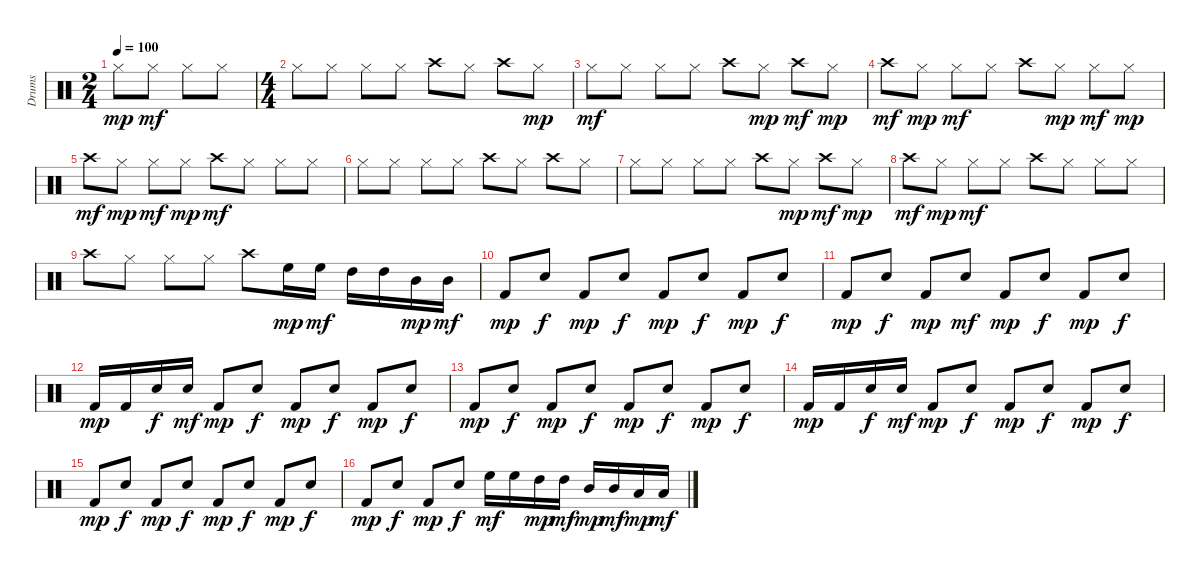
\track ("Drums" "Drums") {instrument percussion}
\staff {score}
\articulation defaults
\ts (2 4)
\tempo 100
\clef neutral
\ks c "Hi-Hat (closed)".8{dy mp} "Hi-Hat (closed)".8{dy mf} "Hi-Hat (closed)".8 "Hi-Hat (closed)".8
|
\ts (4 4)
"Hi-Hat (closed)".8 "Hi-Hat (closed)".8 "Hi-Hat (closed)".8 "Hi-Hat (closed)".8 "Crash high (hit)".8 "Hi-Hat (closed)".8 "Crash high (hit)".8 "Hi-Hat (closed)".8{dy mp} |
"Hi-Hat (closed)".8{dy mf} "Hi-Hat (closed)".8 "Hi-Hat (closed)".8 "Hi-Hat (closed)".8 "Crash high (hit)".8 "Hi-Hat (closed)".8{dy mp} "Crash high (hit)".8{dy mf} "Hi-Hat (closed)".8{dy mp} |
"Crash high (hit)".8{dy mf} "Hi-Hat (closed)".8{dy mp} "Hi-Hat (closed)".8{dy mf} "Hi-Hat (closed)".8 "Crash high (hit)".8 "Hi-Hat (closed)".8{dy mp} "Hi-Hat (closed)".8{dy mf} "Hi-Hat (closed)".8{dy mp} |
"Crash high (hit)".8{dy mf} "Hi-Hat (closed)".8{dy mp} "Hi-Hat (closed)".8{dy mf} "Hi-Hat (closed)".8{dy mp} "Crash high (hit)".8{dy mf} "Hi-Hat (closed)".8 "Hi-Hat (closed)".8 "Hi-Hat (closed)".8 |
"Hi-Hat (closed)".8 "Hi-Hat (closed)".8 "Hi-Hat (closed)".8 "Hi-Hat (closed)".8 "Crash high (hit)".8 "Hi-Hat (closed)".8 "Crash high (hit)".8 "Hi-Hat (closed)".8 |
"Hi-Hat (closed)".8 "Hi-Hat (closed)".8 "Hi-Hat (closed)".8 "Hi-Hat (closed)".8 "Crash high (hit)".8 "Hi-Hat (closed)".8{dy mp} "Crash high (hit)".8{dy mf} "Hi-Hat (closed)".8{dy mp} |
"Crash high (hit)".8{dy mf} "Hi-Hat (closed)".8{dy mp} "Hi-Hat (closed)".8{dy mf} "Hi-Hat (closed)".8 "Crash high (hit)".8 "Hi-Hat (closed)".8 "Hi-Hat (closed)".8 "Hi-Hat (closed)".8 |
"Crash high (hit)".8 "Hi-Hat (closed)".8 "Hi-Hat (closed)".8 "Hi-Hat (closed)".8 "Crash high (hit)".8 "High Floor Tom (hit)".16{dy mp} "High Floor Tom (hit)".16{dy mf} "High Tom (hit)".16 "High Tom (hit)".16 "Mid Tom (hit)".16{dy mp} "Mid Tom (hit)".16{dy mf} |
"Kick (hit) 2".8{dy mp} "Snare (hit) 2".8{dy f} "Kick (hit) 2".8{dy mp} "Snare (hit) 2".8{dy f} "Kick (hit) 2".8{dy mp} "Snare (hit) 2".8{dy f} "Kick (hit) 2".8{dy mp} "Snare (hit) 2".8{dy f} |
"Kick (hit) 2".8{dy mp} "Snare (hit) 2".8{dy f} "Kick (hit) 2".8{dy mp} "Snare (hit) 2".8{dy mf} "Kick (hit) 2".8{dy mp} "Snare (hit) 2".8{dy f} "Kick (hit) 2".8{dy mp} "Snare (hit) 2".8{dy f} |
"Kick (hit) 2".16{dy mp} "Kick (hit) 2".16 "Snare (hit) 2".16{dy f} "Snare (hit) 2".16{dy mf} "Kick (hit) 2".8{dy mp} "Snare (hit) 2".8{dy f} "Kick (hit) 2".8{dy mp} "Snare (hit) 2".8{dy f} "Kick (hit) 2".8{dy mp} "Snare (hit) 2".8{dy f} |
"Kick (hit) 2".8{dy mp} "Snare (hit) 2".8{dy f} "Kick (hit) 2".8{dy mp} "Snare (hit) 2".8{dy f} "Kick (hit) 2".8{dy mp} "Snare (hit) 2".8{dy f} "Kick (hit) 2".8{dy mp} "Snare (hit) 2".8{dy f} |
"Kick (hit) 2".16{dy mp} "Kick (hit) 2".16 "Snare (hit) 2".16{dy f} "Snare (hit) 2".16{dy mf} "Kick (hit) 2".8{dy mp} "Snare (hit) 2".8{dy f} "Kick (hit) 2".8{dy mp} "Snare (hit) 2".8{dy f} "Kick (hit) 2".8{dy mp} "Snare (hit) 2".8{dy f} |
"Kick (hit) 2".8{dy mp} "Snare (hit) 2".8{dy f} "Kick (hit) 2".8{dy mp} "Snare (hit) 2".8{dy f} "Kick (hit) 2".8{dy mp} "Snare (hit) 2".8{dy f} "Kick (hit) 2".8{dy mp} "Snare (hit) 2".8{dy f} |
"Kick (hit) 2".8{dy mp} "Snare (hit) 2".8{dy f} "Kick (hit) 2".8{dy mp} "Snare (hit) 2".8{dy f} "High Floor Tom (hit)".16{dy mf} "High Floor Tom (hit)".16 "High Tom (hit)".16{dy mp} "High Tom (hit)".16{dy mf} "Mid Tom (hit)".16{dy mp} "Mid Tom (hit)".16{dy mf} "Low Tom (hit)".16{dy mp} "Low Tom (hit)".16{dy mf}
